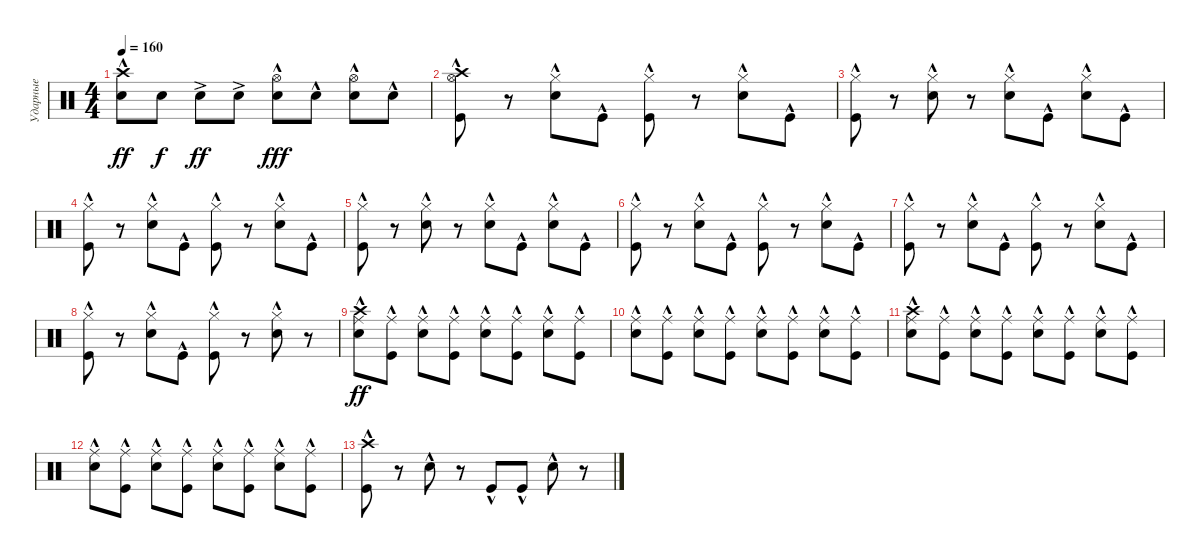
\track ("Ударные" "Ударные") {instrument percussion}
\staff {score}
\articulation defaults
\ts (4 4)
\tempo 160
\clef neutral
\ks c
("Crash high (hit)"{hac} "Snare (hit) 2").8{dy ff} "Snare (hit) 2".8{dy f} "Snare (hit) 2"{ac}.8{dy ff} "Snare (hit) 2"{ac}.8 ("Hi-Hat (open)"{hac} "Snare (hit) 2"{hac}).8{dy fff} "Snare (hit) 2"{hac}.8 ("Hi-Hat (open)"{hac} "Snare (hit) 2"{hac}).8 "Snare (hit) 2"{hac}.8 |
("Hi-Hat (open)"{hac} "Crash high (hit)"{hac} "Kick (hit)"{hac}).8 r.8 ("Hi-Hat (closed)"{hac} "Snare (hit) 2"{hac}).8 "Kick (hit)"{hac}.8 ("Hi-Hat (closed)"{hac} "Kick (hit)"{hac}).8 r.8 ("Hi-Hat (closed)"{hac} "Snare (hit) 2"{hac}).8 "Kick (hit)"{hac}.8 |
("Hi-Hat (closed)"{hac} "Kick (hit)"{hac}).8 r.8 ("Hi-Hat (closed)"{hac} "Snare (hit) 2"{hac}).8 r.8 ("Hi-Hat (closed)"{hac} "Snare (hit) 2"{hac}).8 "Kick (hit)"{hac}.8 ("Hi-Hat (closed)"{hac} "Snare (hit) 2"{hac}).8 "Kick (hit)"{hac}.8 |
("Hi-Hat (closed)"{hac} "Kick (hit)"{hac}).8 r.8 ("Hi-Hat (closed)"{hac} "Snare (hit) 2"{hac}).8 "Kick (hit)"{hac}.8 ("Hi-Hat (closed)"{hac} "Kick (hit)"{hac}).8 r.8 ("Hi-Hat (closed)"{hac} "Snare (hit) 2"{hac}).8 "Kick (hit)"{hac}.8 |
("Hi-Hat (closed)"{hac} "Kick (hit)"{hac}).8 r.8 ("Hi-Hat (closed)"{hac} "Snare (hit) 2"{hac}).8 r.8 ("Hi-Hat (closed)"{hac} "Snare (hit) 2"{hac}).8 "Kick (hit)"{hac}.8 ("Hi-Hat (closed)"{hac} "Snare (hit) 2"{hac}).8 "Kick (hit)"{hac}.8 |
("Hi-Hat (closed)"{hac} "Kick (hit)"{hac}).8 r.8 ("Hi-Hat (closed)"{hac} "Snare (hit) 2"{hac}).8 "Kick (hit)"{hac}.8 ("Hi-Hat (closed)"{hac} "Kick (hit)"{hac}).8 r.8 ("Hi-Hat (closed)"{hac} "Snare (hit) 2"{hac}).8 "Kick (hit)"{hac}.8 |
("Hi-Hat (closed)"{hac} "Kick (hit)"{hac}).8 r.8 ("Hi-Hat (closed)"{hac} "Snare (hit) 2"{hac}).8 "Kick (hit)"{hac}.8 ("Hi-Hat (closed)"{hac} "Kick (hit)"{hac}).8 r.8 ("Hi-Hat (closed)"{hac} "Snare (hit) 2"{hac}).8 "Kick (hit)"{hac}.8 |
("Hi-Hat (closed)"{hac} "Kick (hit)"{hac}).8 r.8 ("Hi-Hat (closed)"{hac} "Snare (hit) 2"{hac}).8 "Kick (hit)"{hac}.8 ("Hi-Hat (closed)"{hac} "Kick (hit)"{hac}).8 r.8 ("Hi-Hat (closed)"{hac} "Snare (hit) 2"{hac}).8 r.8 |
("Ride (middle)"{hac} "Crash high (hit)"{hac} "Snare (hit) 2"{hac}).8{dy ff} ("Ride (middle)"{hac} "Kick (hit)"{hac}).8 ("Ride (middle)"{hac} "Snare (hit) 2"{hac}).8 ("Ride (middle)"{hac} "Kick (hit)"{hac}).8 ("Ride (middle)"{hac} "Snare (hit) 2"{hac}).8 ("Ride (middle)"{hac} "Kick (hit)"{hac}).8 ("Ride (middle)"{hac} "Snare (hit) 2"{hac}).8 ("Ride (middle)"{hac} "Kick (hit)"{hac}).8 |
("Ride (middle)"{hac} "Snare (hit) 2"{hac}).8 ("Ride (middle)"{hac} "Kick (hit)"{hac}).8 ("Ride (middle)"{hac} "Snare (hit) 2"{hac}).8 ("Ride (middle)"{hac} "Kick (hit)"{hac}).8 ("Ride (middle)"{hac} "Snare (hit) 2"{hac}).8 ("Ride (middle)"{hac} "Kick (hit)"{hac}).8 ("Ride (middle)"{hac} "Snare (hit) 2"{hac}).8 ("Ride (middle)"{hac} "Kick (hit)"{hac}).8 |
("Ride (middle)"{hac} "Crash high (hit)"{hac} "Snare (hit) 2"{hac}).8 ("Ride (middle)"{hac} "Kick (hit)"{hac}).8 ("Ride (middle)"{hac} "Snare (hit) 2"{hac}).8 ("Ride (middle)"{hac} "Kick (hit)"{hac}).8 ("Ride (middle)"{hac} "Snare (hit) 2"{hac}).8 ("Ride (middle)"{hac} "Kick (hit)"{hac}).8 ("Ride (middle)"{hac} "Snare (hit) 2"{hac}).8 ("Ride (middle)"{hac} "Kick (hit)"{hac}).8 |
("Ride (middle)"{hac} "Snare (hit) 2"{hac}).8 ("Ride (middle)"{hac} "Kick (hit)"{hac}).8 ("Ride (middle)"{hac} "Snare (hit) 2"{hac}).8 ("Ride (middle)"{hac} "Kick (hit)"{hac}).8 ("Ride (middle)"{hac} "Snare (hit) 2"{hac}).8 ("Ride (middle)"{hac} "Kick (hit)"{hac}).8 ("Ride (middle)"{hac} "Snare (hit) 2"{hac}).8 ("Ride (middle)"{hac} "Kick (hit)"{hac}).8 |
("Crash high (hit)"{hac} "Kick (hit)"{hac}).8 r.8 "Snare (hit) 2"{hac}.8 r.8 "Kick (hit)"{hac}.8 "Kick (hit)"{hac}.8 "Snare (hit) 2"{hac}.8 r.8
